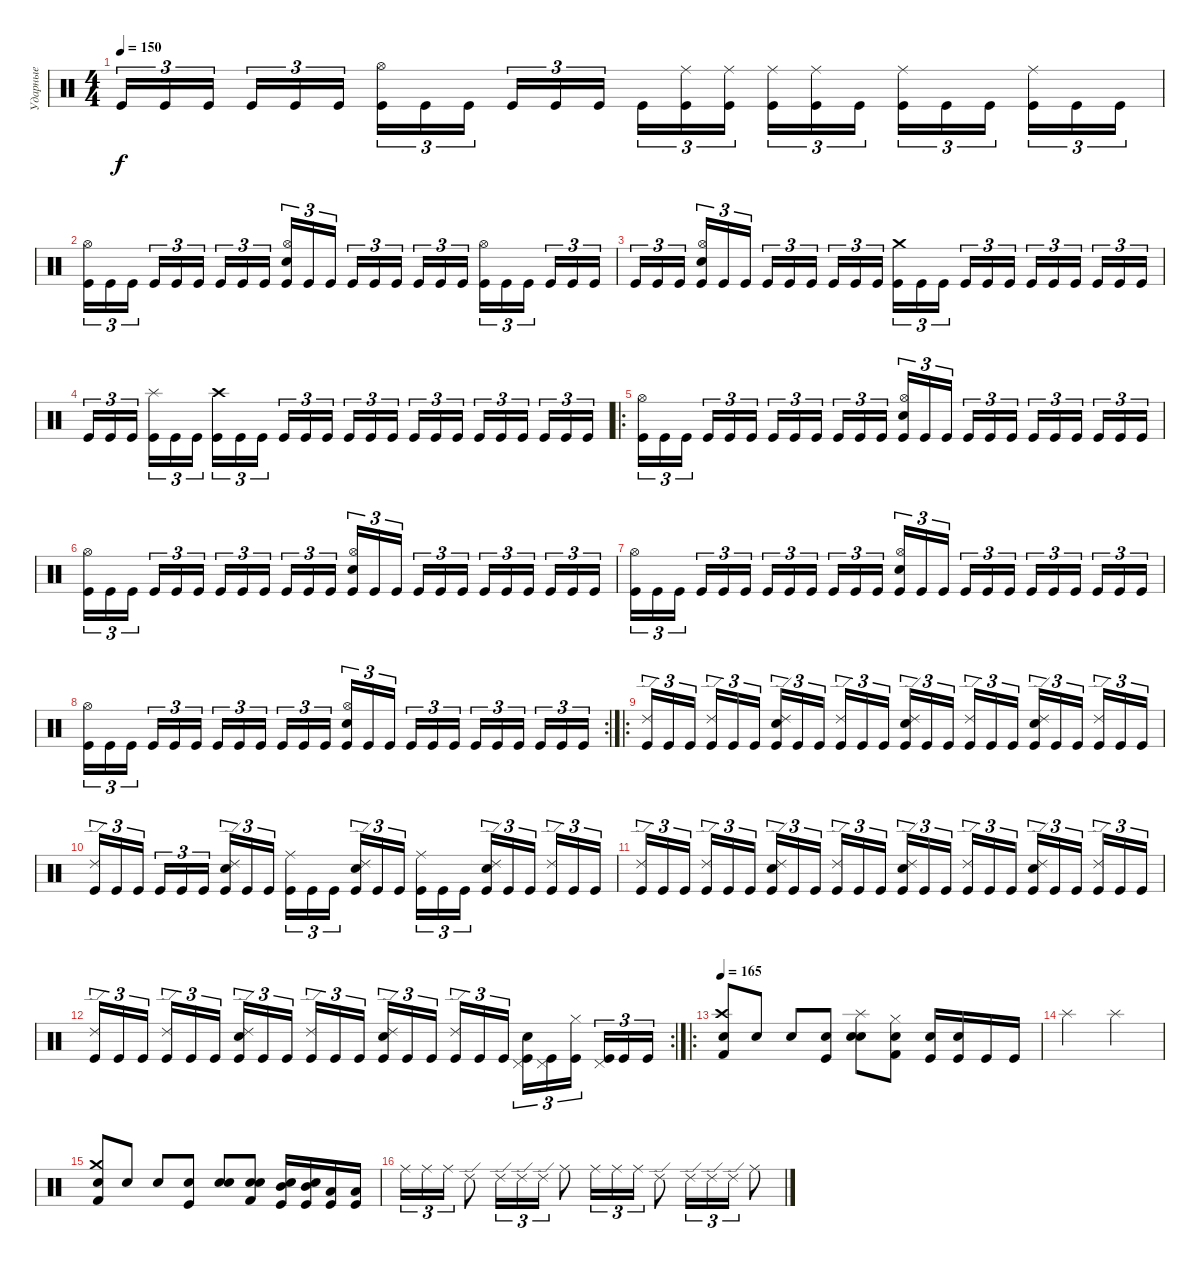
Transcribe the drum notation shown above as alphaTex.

\track ("Ударные" "Ударные") {instrument percussion}
\staff {score}
\articulation defaults
\ts (4 4)
\tempo 150
\clef neutral
\ks c "Kick (hit)".16{tu (3 2) dy f} "Kick (hit)".16{tu (3 2)} "Kick (hit)".16{tu (3 2) beam splitsecondary} "Kick (hit)".16{tu (3 2)} "Kick (hit)".16{tu (3 2)} "Kick (hit)".16{tu (3 2)}
("Hi-Hat (open)" "Kick (hit)").16{tu (3 2)} "Kick (hit)".16{tu (3 2)} "Kick (hit)".16{tu (3 2) beam splitsecondary} "Kick (hit)".16{tu (3 2)} "Kick (hit)".16{tu (3 2)} "Kick (hit)".16{tu (3 2)} "Kick (hit)".16{tu (3 2)} ("Ride (middle)" "Kick (hit)").16{tu (3 2)} ("Ride (middle)" "Kick (hit)").16{tu (3 2) beam splitsecondary} ("Ride (middle)" "Kick (hit)").16{tu (3 2)} ("Ride (middle)" "Kick (hit)").16{tu (3 2)} "Kick (hit)".16{tu (3 2)} ("Ride (middle)" "Kick (hit)").16{tu (3 2)} "Kick (hit)".16{tu (3 2)} "Kick (hit)".16{tu (3 2) beam splitsecondary} ("Ride (middle)" "Kick (hit)").16{tu (3 2)} "Kick (hit)".16{tu (3 2)} "Kick (hit)".16{tu (3 2)} |
("Hi-Hat (open)" "Kick (hit)").16{tu (3 2)} "Kick (hit)".16{tu (3 2)} "Kick (hit)".16{tu (3 2) beam splitsecondary} "Kick (hit)".16{tu (3 2)} "Kick (hit)".16{tu (3 2)} "Kick (hit)".16{tu (3 2)} "Kick (hit)".16{tu (3 2)} "Kick (hit)".16{tu (3 2)} "Kick (hit)".16{tu (3 2) beam splitsecondary} ("Snare (hit) 2" "Hi-Hat (open)" "Kick (hit)").16{tu (3 2)} "Kick (hit)".16{tu (3 2)} "Kick (hit)".16{tu (3 2)} "Kick (hit)".16{tu (3 2)} "Kick (hit)".16{tu (3 2)} "Kick (hit)".16{tu (3 2) beam splitsecondary} "Kick (hit)".16{tu (3 2)} "Kick (hit)".16{tu (3 2)} "Kick (hit)".16{tu (3 2)} ("Hi-Hat (open)" "Kick (hit)").16{tu (3 2)} "Kick (hit)".16{tu (3 2)} "Kick (hit)".16{tu (3 2) beam splitsecondary} "Kick (hit)".16{tu (3 2)} "Kick (hit)".16{tu (3 2)} "Kick (hit)".16{tu (3 2)} |
"Kick (hit)".16{tu (3 2)} "Kick (hit)".16{tu (3 2)} "Kick (hit)".16{tu (3 2) beam splitsecondary} ("Snare (hit) 2" "Hi-Hat (open)" "Kick (hit)").16{tu (3 2)} "Kick (hit)".16{tu (3 2)} "Kick (hit)".16{tu (3 2)} "Kick (hit)".16{tu (3 2)} "Kick (hit)".16{tu (3 2)} "Kick (hit)".16{tu (3 2) beam splitsecondary} "Kick (hit)".16{tu (3 2)} "Kick (hit)".16{tu (3 2)} "Kick (hit)".16{tu (3 2)} ("Crash medium (hit)" "Kick (hit)").16{tu (3 2)} "Kick (hit)".16{tu (3 2)} "Kick (hit)".16{tu (3 2) beam splitsecondary} "Kick (hit)".16{tu (3 2)} "Kick (hit)".16{tu (3 2)} "Kick (hit)".16{tu (3 2)} "Kick (hit)".16{tu (3 2)} "Kick (hit)".16{tu (3 2)} "Kick (hit)".16{tu (3 2) beam splitsecondary} "Kick (hit)".16{tu (3 2)} "Kick (hit)".16{tu (3 2)} "Kick (hit)".16{tu (3 2)} |
"Kick (hit)".16{tu (3 2)} "Kick (hit)".16{tu (3 2)} "Kick (hit)".16{tu (3 2) beam splitsecondary} ("Splash (hit)" "Kick (hit)").16{tu (3 2)} "Kick (hit)".16{tu (3 2)} "Kick (hit)".16{tu (3 2)} ("Crash high (hit)" "Kick (hit)").16{tu (3 2)} "Kick (hit)".16{tu (3 2)} "Kick (hit)".16{tu (3 2) beam splitsecondary} "Kick (hit)".16{tu (3 2)} "Kick (hit)".16{tu (3 2)} "Kick (hit)".16{tu (3 2)} "Kick (hit)".16{tu (3 2)} "Kick (hit)".16{tu (3 2)} "Kick (hit)".16{tu (3 2) beam splitsecondary} "Kick (hit)".16{tu (3 2)} "Kick (hit)".16{tu (3 2)} "Kick (hit)".16{tu (3 2)} "Kick (hit)".16{tu (3 2)} "Kick (hit)".16{tu (3 2)} "Kick (hit)".16{tu (3 2) beam splitsecondary} "Kick (hit)".16{tu (3 2)} "Kick (hit)".16{tu (3 2)} "Kick (hit)".16{tu (3 2)} |
\ro
("Hi-Hat (open)" "Kick (hit)").16{tu (3 2)} "Kick (hit)".16{tu (3 2)} "Kick (hit)".16{tu (3 2) beam splitsecondary} "Kick (hit)".16{tu (3 2)} "Kick (hit)".16{tu (3 2)} "Kick (hit)".16{tu (3 2)} "Kick (hit)".16{tu (3 2)} "Kick (hit)".16{tu (3 2)} "Kick (hit)".16{tu (3 2) beam splitsecondary} "Kick (hit)".16{tu (3 2)} "Kick (hit)".16{tu (3 2)} "Kick (hit)".16{tu (3 2)} ("Snare (hit) 2" "Hi-Hat (open)" "Kick (hit)").16{tu (3 2)} "Kick (hit)".16{tu (3 2)} "Kick (hit)".16{tu (3 2) beam splitsecondary} "Kick (hit)".16{tu (3 2)} "Kick (hit)".16{tu (3 2)} "Kick (hit)".16{tu (3 2)} "Kick (hit)".16{tu (3 2)} "Kick (hit)".16{tu (3 2)} "Kick (hit)".16{tu (3 2) beam splitsecondary} "Kick (hit)".16{tu (3 2)} "Kick (hit)".16{tu (3 2)} "Kick (hit)".16{tu (3 2)} |
("Hi-Hat (open)" "Kick (hit)").16{tu (3 2)} "Kick (hit)".16{tu (3 2)} "Kick (hit)".16{tu (3 2) beam splitsecondary} "Kick (hit)".16{tu (3 2)} "Kick (hit)".16{tu (3 2)} "Kick (hit)".16{tu (3 2)} "Kick (hit)".16{tu (3 2)} "Kick (hit)".16{tu (3 2)} "Kick (hit)".16{tu (3 2) beam splitsecondary} "Kick (hit)".16{tu (3 2)} "Kick (hit)".16{tu (3 2)} "Kick (hit)".16{tu (3 2)} ("Snare (hit) 2" "Hi-Hat (open)" "Kick (hit)").16{tu (3 2)} "Kick (hit)".16{tu (3 2)} "Kick (hit)".16{tu (3 2) beam splitsecondary} "Kick (hit)".16{tu (3 2)} "Kick (hit)".16{tu (3 2)} "Kick (hit)".16{tu (3 2)} "Kick (hit)".16{tu (3 2)} "Kick (hit)".16{tu (3 2)} "Kick (hit)".16{tu (3 2) beam splitsecondary} "Kick (hit)".16{tu (3 2)} "Kick (hit)".16{tu (3 2)} "Kick (hit)".16{tu (3 2)} |
("Hi-Hat (open)" "Kick (hit)").16{tu (3 2)} "Kick (hit)".16{tu (3 2)} "Kick (hit)".16{tu (3 2) beam splitsecondary} "Kick (hit)".16{tu (3 2)} "Kick (hit)".16{tu (3 2)} "Kick (hit)".16{tu (3 2)} "Kick (hit)".16{tu (3 2)} "Kick (hit)".16{tu (3 2)} "Kick (hit)".16{tu (3 2) beam splitsecondary} "Kick (hit)".16{tu (3 2)} "Kick (hit)".16{tu (3 2)} "Kick (hit)".16{tu (3 2)} ("Snare (hit) 2" "Hi-Hat (open)" "Kick (hit)").16{tu (3 2)} "Kick (hit)".16{tu (3 2)} "Kick (hit)".16{tu (3 2) beam splitsecondary} "Kick (hit)".16{tu (3 2)} "Kick (hit)".16{tu (3 2)} "Kick (hit)".16{tu (3 2)} "Kick (hit)".16{tu (3 2)} "Kick (hit)".16{tu (3 2)} "Kick (hit)".16{tu (3 2) beam splitsecondary} "Kick (hit)".16{tu (3 2)} "Kick (hit)".16{tu (3 2)} "Kick (hit)".16{tu (3 2)} |
\rc 2
("Hi-Hat (open)" "Kick (hit)").16{tu (3 2)} "Kick (hit)".16{tu (3 2)} "Kick (hit)".16{tu (3 2) beam splitsecondary} "Kick (hit)".16{tu (3 2)} "Kick (hit)".16{tu (3 2)} "Kick (hit)".16{tu (3 2)} "Kick (hit)".16{tu (3 2)} "Kick (hit)".16{tu (3 2)} "Kick (hit)".16{tu (3 2) beam splitsecondary} "Kick (hit)".16{tu (3 2)} "Kick (hit)".16{tu (3 2)} "Kick (hit)".16{tu (3 2)} ("Snare (hit) 2" "Hi-Hat (open)" "Kick (hit)").16{tu (3 2)} "Kick (hit)".16{tu (3 2)} "Kick (hit)".16{tu (3 2) beam splitsecondary} "Kick (hit)".16{tu (3 2)} "Kick (hit)".16{tu (3 2)} "Kick (hit)".16{tu (3 2)} "Kick (hit)".16{tu (3 2)} "Kick (hit)".16{tu (3 2)} "Kick (hit)".16{tu (3 2) beam splitsecondary} "Kick (hit)".16{tu (3 2)} "Kick (hit)".16{tu (3 2)} "Kick (hit)".16{tu (3 2)} |
\ro
("Ride (edge) 2" "Kick (hit)").16{tu (3 2)} "Kick (hit)".16{tu (3 2)} "Kick (hit)".16{tu (3 2) beam splitsecondary} ("Ride (edge) 2" "Kick (hit)").16{tu (3 2)} "Kick (hit)".16{tu (3 2)} "Kick (hit)".16{tu (3 2)} ("Snare (hit) 2" "Ride (edge) 2" "Kick (hit)").16{tu (3 2)} "Kick (hit)".16{tu (3 2)} "Kick (hit)".16{tu (3 2) beam splitsecondary} ("Ride (edge) 2" "Kick (hit)").16{tu (3 2)} "Kick (hit)".16{tu (3 2)} "Kick (hit)".16{tu (3 2)} ("Snare (hit)" "Ride (edge) 2" "Kick (hit)").16{tu (3 2)} "Kick (hit)".16{tu (3 2)} "Kick (hit)".16{tu (3 2) beam splitsecondary} ("Ride (edge) 2" "Kick (hit)").16{tu (3 2)} "Kick (hit)".16{tu (3 2)} "Kick (hit)".16{tu (3 2)} ("Snare (hit) 2" "Ride (edge) 2" "Kick (hit)").16{tu (3 2)} "Kick (hit)".16{tu (3 2)} "Kick (hit)".16{tu (3 2) beam splitsecondary} ("Ride (edge) 2" "Kick (hit)").16{tu (3 2)} "Kick (hit)".16{tu (3 2)} "Kick (hit)".16{tu (3 2)} |
("Ride (edge) 2" "Kick (hit)").16{tu (3 2)} "Kick (hit)".16{tu (3 2)} "Kick (hit)".16{tu (3 2) beam splitsecondary} "Kick (hit)".16{tu (3 2)} "Kick (hit)".16{tu (3 2)} "Kick (hit)".16{tu (3 2)} ("Snare (hit) 2" "Ride (edge) 2" "Kick (hit)").16{tu (3 2)} "Kick (hit)".16{tu (3 2)} "Kick (hit)".16{tu (3 2) beam splitsecondary} ("Ride (middle)" "Kick (hit)").16{tu (3 2)} "Kick (hit)".16{tu (3 2)} "Kick (hit)".16{tu (3 2)} ("Snare (hit)" "Ride (edge) 2" "Kick (hit)").16{tu (3 2)} "Kick (hit)".16{tu (3 2)} "Kick (hit)".16{tu (3 2) beam splitsecondary} ("Ride (middle)" "Kick (hit)").16{tu (3 2)} "Kick (hit)".16{tu (3 2)} "Kick (hit)".16{tu (3 2)} ("Snare (hit) 2" "Ride (edge) 2" "Kick (hit)").16{tu (3 2)} "Kick (hit)".16{tu (3 2)} "Kick (hit)".16{tu (3 2) beam splitsecondary} ("Ride (edge) 2" "Kick (hit)").16{tu (3 2)} "Kick (hit)".16{tu (3 2)} "Kick (hit)".16{tu (3 2)} |
("Ride (edge) 2" "Kick (hit)").16{tu (3 2)} "Kick (hit)".16{tu (3 2)} "Kick (hit)".16{tu (3 2) beam splitsecondary} ("Ride (edge) 2" "Kick (hit)").16{tu (3 2)} "Kick (hit)".16{tu (3 2)} "Kick (hit)".16{tu (3 2)} ("Snare (hit) 2" "Ride (edge) 2" "Kick (hit)").16{tu (3 2)} "Kick (hit)".16{tu (3 2)} "Kick (hit)".16{tu (3 2) beam splitsecondary} ("Ride (edge) 2" "Kick (hit)").16{tu (3 2)} "Kick (hit)".16{tu (3 2)} "Kick (hit)".16{tu (3 2)} ("Snare (hit)" "Ride (edge) 2" "Kick (hit)").16{tu (3 2)} "Kick (hit)".16{tu (3 2)} "Kick (hit)".16{tu (3 2) beam splitsecondary} ("Ride (edge) 2" "Kick (hit)").16{tu (3 2)} "Kick (hit)".16{tu (3 2)} "Kick (hit)".16{tu (3 2)} ("Snare (hit) 2" "Ride (edge) 2" "Kick (hit)").16{tu (3 2)} "Kick (hit)".16{tu (3 2)} "Kick (hit)".16{tu (3 2) beam splitsecondary} ("Ride (edge) 2" "Kick (hit)").16{tu (3 2)} "Kick (hit)".16{tu (3 2)} "Kick (hit)".16{tu (3 2)} |
\rc 2
("Ride (edge) 2" "Kick (hit)").16{tu (3 2)} "Kick (hit)".16{tu (3 2)} "Kick (hit)".16{tu (3 2) beam splitsecondary} ("Ride (edge) 2" "Kick (hit)").16{tu (3 2)} "Kick (hit)".16{tu (3 2)} "Kick (hit)".16{tu (3 2)} ("Snare (hit) 2" "Ride (edge) 2" "Kick (hit)").16{tu (3 2)} "Kick (hit)".16{tu (3 2)} "Kick (hit)".16{tu (3 2) beam splitsecondary} ("Ride (edge) 2" "Kick (hit)").16{tu (3 2)} "Kick (hit)".16{tu (3 2)} "Kick (hit)".16{tu (3 2)} ("Snare (hit)" "Ride (edge) 2" "Kick (hit)").16{tu (3 2)} "Kick (hit)".16{tu (3 2)} "Kick (hit)".16{tu (3 2) beam splitsecondary} ("Ride (edge) 2" "Kick (hit)").16{tu (3 2)} "Kick (hit)".16{tu (3 2)} "Kick (hit)".16{tu (3 2)} ("Snare (hit) 2" "Pedal Hi-Hat (hit)" "Kick (hit)").16{tu (3 2)} ("Pedal Hi-Hat (hit)" "Kick (hit)").16{tu (3 2)} ("Hi-Hat (closed)" "Kick (hit)").16{tu (3 2) beam splitsecondary} ("Pedal Hi-Hat (hit)" "Kick (hit)").16{tu (3 2)} "Kick (hit)".16{tu (3 2)} "Kick (hit)".16{tu (3 2)} |
\ro
\tempo 165
("Crash high (hit)" "Kick (hit) 2" "Snare (hit)").8 "Snare (hit)".8 "Snare (hit)".8 ("Kick (hit)" "Snare (hit)").8 ("Snare (hit) 2" "Splash (hit)" "Snare (hit)").8 ("Hi-Hat (closed)" "Kick (hit) 2" "Snare (hit)").8 ("Kick (hit)" "Snare (hit)").16 ("Kick (hit)" "Snare (hit)").16 "Kick (hit)".16 "Kick (hit)".16 |
"Splash (hit)".2 "Splash (hit)".2 |
("Crash medium (hit)" "Kick (hit) 2" "Snare (hit)").8 "Snare (hit)".8 "Snare (hit)".8 ("Kick (hit)" "Snare (hit)").8 ("Snare (hit) 2" "Snare (hit)").8 ("Snare (hit) 2" "Kick (hit) 2" "Snare (hit)").8 ("Mid Tom (hit)" "Kick (hit)" "Snare (hit)").16 ("Mid Tom (hit)" "Kick (hit)" "Snare (hit)").16 ("Low Tom (hit)" "Kick (hit)").16 ("Low Tom (hit)" "Kick (hit)").16 |
"Ride (middle)".16{tu (3 2)} "Ride (middle)".16{tu (3 2)} "Ride (middle)".16{tu (3 2)} "Ride (edge) 2".8 "Ride (edge) 2".16{tu (3 2)} "Ride (edge) 2".16{tu (3 2)} "Ride (edge) 2".16{tu (3 2)} "Ride (middle)".8 "Ride (middle)".16{tu (3 2)} "Ride (middle)".16{tu (3 2)} "Ride (middle)".16{tu (3 2)} "Ride (edge) 2".8 "Ride (edge) 2".16{tu (3 2)} "Ride (edge) 2".16{tu (3 2)} "Ride (edge) 2".16{tu (3 2)} "Ride (middle)".8
